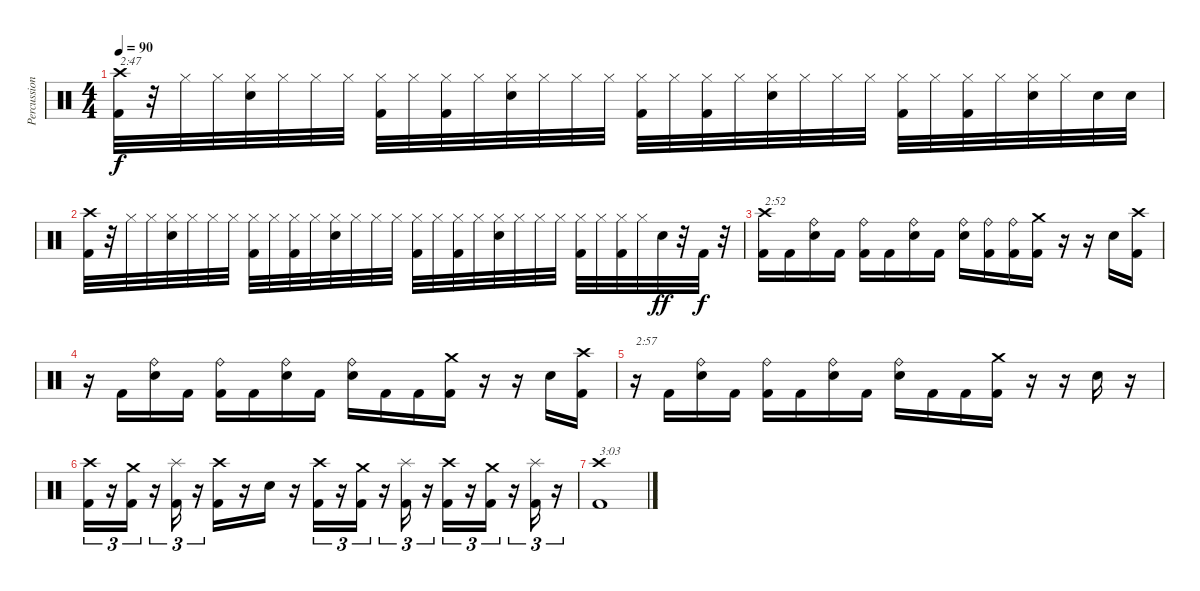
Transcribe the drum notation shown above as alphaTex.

\track ("Percussion" "Percussion") {instrument percussion}
\staff {score}
\articulation defaults
\ts (4 4)
\tempo 90
\clef neutral
\ks c
("Crash high (hit)" "Kick (hit) 2").32{txt "2:47" dy f} r.32 "Hi-Hat (closed)".32 "Hi-Hat (closed)".32 ("Hi-Hat (closed)" "Snare (hit) 2").32 "Hi-Hat (closed)".32 "Hi-Hat (closed)".32 "Hi-Hat (closed)".32 ("Hi-Hat (closed)" "Kick (hit) 2").32 "Hi-Hat (closed)".32 ("Hi-Hat (closed)" "Kick (hit) 2").32 "Hi-Hat (closed)".32 ("Hi-Hat (closed)" "Snare (hit) 2").32 "Hi-Hat (closed)".32 "Hi-Hat (closed)".32 "Hi-Hat (closed)".32 ("Hi-Hat (closed)" "Kick (hit) 2").32 "Hi-Hat (closed)".32 ("Hi-Hat (closed)" "Kick (hit) 2").32 "Hi-Hat (closed)".32 ("Hi-Hat (closed)" "Snare (hit) 2").32 "Hi-Hat (closed)".32 "Hi-Hat (closed)".32 "Hi-Hat (closed)".32 ("Hi-Hat (closed)" "Kick (hit) 2").32 "Hi-Hat (closed)".32 ("Hi-Hat (closed)" "Kick (hit) 2").32 "Hi-Hat (closed)".32 ("Hi-Hat (closed)" "Snare (hit) 2").32 "Hi-Hat (closed)".32 "Snare (hit) 2".32 "Snare (hit) 2".32 |
("Crash high (hit)" "Kick (hit) 2").32 r.32 "Hi-Hat (closed)".32 "Hi-Hat (closed)".32 ("Hi-Hat (closed)" "Snare (hit) 2").32 "Hi-Hat (closed)".32 "Hi-Hat (closed)".32 "Hi-Hat (closed)".32 ("Hi-Hat (closed)" "Kick (hit) 2").32 "Hi-Hat (closed)".32 ("Hi-Hat (closed)" "Kick (hit) 2").32 "Hi-Hat (closed)".32 ("Hi-Hat (closed)" "Snare (hit) 2").32 "Hi-Hat (closed)".32 "Hi-Hat (closed)".32 "Hi-Hat (closed)".32 ("Hi-Hat (closed)" "Kick (hit) 2").32 "Hi-Hat (closed)".32 ("Hi-Hat (closed)" "Kick (hit) 2").32 "Hi-Hat (closed)".32 ("Hi-Hat (closed)" "Snare (hit) 2").32 "Hi-Hat (closed)".32 "Hi-Hat (closed)".32 "Hi-Hat (closed)".32 ("Hi-Hat (closed)" "Kick (hit) 2").32 "Hi-Hat (closed)".32 ("Hi-Hat (closed)" "Kick (hit) 2").32 "Hi-Hat (closed)".32 "Snare (hit) 2".32{dy ff} r.32 "Kick (hit) 2".32{dy f} r.32 |
("Crash high (hit)" "Kick (hit) 2").16{txt "2:52"} "Kick (hit) 2".16 ("Ride (bell)" "Snare (hit) 2").16 "Kick (hit) 2".16 ("Ride (bell)" "Kick (hit) 2").16 "Kick (hit) 2".16 ("Ride (bell)" "Snare (hit) 2").16 "Kick (hit) 2".16 ("Ride (bell)" "Snare (hit) 2").16 ("Ride (bell)" "Kick (hit) 2").16 ("Ride (bell)" "Kick (hit) 2").16 ("Crash medium (hit)" "Kick (hit) 2").16 r.16 r.16 "Snare (hit) 2".16 ("Crash high (hit)" "Kick (hit) 2").16 |
r.16 "Kick (hit) 2".16 ("Ride (bell)" "Snare (hit) 2").16 "Kick (hit) 2".16 ("Ride (bell)" "Kick (hit) 2").16 "Kick (hit) 2".16 ("Ride (bell)" "Snare (hit) 2").16 "Kick (hit) 2".16 ("Ride (bell)" "Snare (hit) 2").16 "Kick (hit) 2".16 "Kick (hit) 2".16 ("Crash medium (hit)" "Kick (hit) 2").16 r.16 r.16 "Snare (hit) 2".16 ("Crash high (hit)" "Kick (hit) 2").16 |
r.16{txt "2:57"} "Kick (hit) 2".16 ("Ride (bell)" "Snare (hit) 2").16 "Kick (hit) 2".16 ("Ride (bell)" "Kick (hit) 2").16 "Kick (hit) 2".16 ("Ride (bell)" "Snare (hit) 2").16 "Kick (hit) 2".16 ("Ride (bell)" "Snare (hit) 2").16 "Kick (hit) 2".16 "Kick (hit) 2".16 ("Crash medium (hit)" "Kick (hit) 2").16 r.16 r.16 "Snare (hit) 2".16 r.16 |
("Crash high (hit)" "Kick (hit) 2").16{tu (3 2)} r.16{tu (3 2)} ("Crash medium (hit)" "Kick (hit) 2").16{tu (3 2)} r.16{tu (3 2)} ("Splash (hit)" "Kick (hit) 2").16{tu (3 2)} r.16{tu (3 2)} ("Crash high (hit)" "Kick (hit) 2").16 r.16 "Snare (hit) 2".16 r.16 ("Crash high (hit)" "Kick (hit) 2").16{tu (3 2)} r.16{tu (3 2)} ("Crash medium (hit)" "Kick (hit) 2").16{tu (3 2)} r.16{tu (3 2)} ("Splash (hit)" "Kick (hit) 2").16{tu (3 2)} r.16{tu (3 2)} ("Crash high (hit)" "Kick (hit) 2").16{tu (3 2)} r.16{tu (3 2)} ("Crash medium (hit)" "Kick (hit) 2").16{tu (3 2)} r.16{tu (3 2)} ("Splash (hit)" "Kick (hit) 2").16{tu (3 2)} r.16{tu (3 2)} |
("Crash high (hit)" "Kick (hit) 2").1{txt "3:03"}
